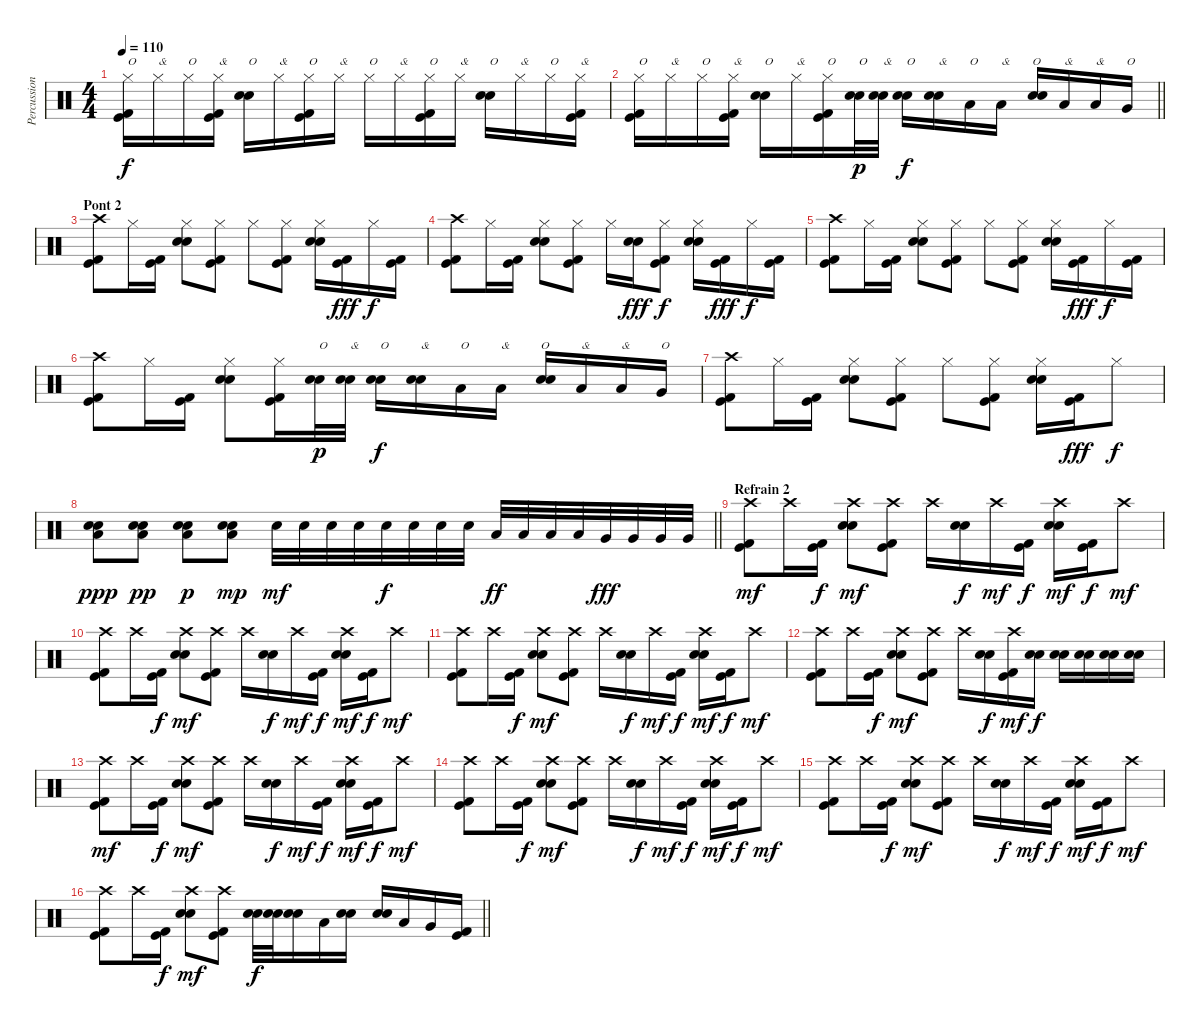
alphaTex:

\track ("Percussions" "Percussion") {instrument percussion}
\staff {score}
\articulation defaults
\ts (4 4)
\tempo 110
\clef neutral
\ks c
("Hi-Hat (closed)" "Kick (hit)" "Kick (hit) 2").16{txt "O" dy f} "Hi-Hat (closed)".16{txt "&"} "Hi-Hat (closed)".16{txt "O"} ("Hi-Hat (closed)" "Kick (hit)" "Kick (hit) 2").16{txt "&"} ("Snare (hit) 2" "Electric Snare (hit)").16{txt "O"} "Hi-Hat (closed)".16{txt "&"} ("Hi-Hat (closed)" "Kick (hit) 2" "Kick (hit)").16{txt "O"} "Hi-Hat (closed)".16{txt "&"} "Hi-Hat (closed)".16{txt "O"} "Hi-Hat (closed)".16{txt "&"} ("Hi-Hat (closed)" "Kick (hit)" "Kick (hit) 2").16{txt "O"} "Hi-Hat (closed)".16{txt "&"} ("Snare (hit) 2" "Electric Snare (hit)").16{txt "O"} "Hi-Hat (closed)".16{txt "&"} "Hi-Hat (closed)".16{txt "O"} ("Hi-Hat (closed)" "Kick (hit)" "Kick (hit) 2").16{txt "&"} |
\barLineRight lightlight
("Hi-Hat (closed)" "Kick (hit)" "Kick (hit) 2").16{txt "O"} "Hi-Hat (closed)".16{txt "&"} "Hi-Hat (closed)".16{txt "O"} ("Hi-Hat (closed)" "Kick (hit)" "Kick (hit) 2").16{txt "&"} ("Snare (hit) 2" "Electric Snare (hit)").16{txt "O"} "Hi-Hat (closed)".16{txt "&"} ("Hi-Hat (closed)" "Kick (hit) 2" "Kick (hit)").16{txt "O"} ("Snare (hit) 2" "Electric Snare (hit)").32{txt "O" dy p} ("Snare (hit) 2" "Electric Snare (hit)").32{txt "&"} ("Snare (hit) 2" "Electric Snare (hit)").16{txt "O" dy f} ("Snare (hit) 2" "Electric Snare (hit)").16{txt "&"} "Low Tom (hit)".16{txt "O"} "Low Tom (hit)".16{txt "&"} ("Snare (hit) 2" "Electric Snare (hit)").16{txt "O"} "Low Tom (hit)".16{txt "&"} "Low Tom (hit)".16{txt "&"} "Very Low Tom (hit)".16{txt "O"} |
\section ("" "Pont 2")
("Crash high (hit)" "Kick (hit)" "Kick (hit) 2").8 "Hi-Hat (closed)".16 ("Kick (hit)" "Kick (hit) 2").16 ("Hi-Hat (closed)" "Snare (hit) 2" "Electric Snare (hit)").8 ("Hi-Hat (closed)" "Kick (hit) 2" "Kick (hit)").8 "Hi-Hat (closed)".8 ("Hi-Hat (closed)" "Kick (hit)" "Kick (hit) 2").8 ("Hi-Hat (closed)" "Snare (hit) 2" "Electric Snare (hit)").16 ("Kick (hit)" "Kick (hit) 2").16{dy fff} "Hi-Hat (closed)".16{dy f} ("Kick (hit)" "Kick (hit) 2").16 |
("Crash high (hit)" "Kick (hit)" "Kick (hit) 2").8 "Hi-Hat (closed)".16 ("Kick (hit)" "Kick (hit) 2").16 ("Hi-Hat (closed)" "Snare (hit) 2" "Electric Snare (hit)").8 ("Hi-Hat (closed)" "Kick (hit) 2" "Kick (hit)").8 "Hi-Hat (closed)".16 ("Snare (hit) 2" "Electric Snare (hit)").16{dy fff} ("Hi-Hat (closed)" "Kick (hit)" "Kick (hit) 2").8{dy f} ("Hi-Hat (closed)" "Snare (hit) 2" "Electric Snare (hit)").16 ("Kick (hit)" "Kick (hit) 2").16{dy fff} "Hi-Hat (closed)".16{dy f} ("Kick (hit)" "Kick (hit) 2").16 |
("Crash high (hit)" "Kick (hit)" "Kick (hit) 2").8 "Hi-Hat (closed)".16 ("Kick (hit)" "Kick (hit) 2").16 ("Hi-Hat (closed)" "Snare (hit) 2" "Electric Snare (hit)").8 ("Hi-Hat (closed)" "Kick (hit) 2" "Kick (hit)").8 "Hi-Hat (closed)".8 ("Hi-Hat (closed)" "Kick (hit)" "Kick (hit) 2").8 ("Hi-Hat (closed)" "Snare (hit) 2" "Electric Snare (hit)").16 ("Kick (hit)" "Kick (hit) 2").16{dy fff} "Hi-Hat (closed)".16{dy f} ("Kick (hit)" "Kick (hit) 2").16 |
("Crash high (hit)" "Kick (hit)" "Kick (hit) 2").8 "Hi-Hat (closed)".16 ("Kick (hit)" "Kick (hit) 2").16 ("Hi-Hat (closed)" "Snare (hit) 2" "Electric Snare (hit)").8 ("Hi-Hat (closed)" "Kick (hit) 2" "Kick (hit)").16 ("Snare (hit) 2" "Electric Snare (hit)").32{txt "O" dy p} ("Snare (hit) 2" "Electric Snare (hit)").32{txt "&"} ("Snare (hit) 2" "Electric Snare (hit)").16{txt "O" dy f} ("Snare (hit) 2" "Electric Snare (hit)").16{txt "&"} "Low Tom (hit)".16{txt "O"} "Low Tom (hit)".16{txt "&"} ("Snare (hit) 2" "Electric Snare (hit)").16{txt "O"} "Low Tom (hit)".16{txt "&"} "Low Tom (hit)".16{txt "&"} "Very Low Tom (hit)".16{txt "O"} |
("Crash high (hit)" "Kick (hit)" "Kick (hit) 2").8 "Hi-Hat (closed)".16 ("Kick (hit)" "Kick (hit) 2").16 ("Hi-Hat (closed)" "Snare (hit) 2" "Electric Snare (hit)").8 ("Hi-Hat (closed)" "Kick (hit) 2" "Kick (hit)").8 "Hi-Hat (closed)".8 ("Hi-Hat (closed)" "Kick (hit)" "Kick (hit) 2").8 ("Hi-Hat (closed)" "Snare (hit) 2" "Electric Snare (hit)").16 ("Kick (hit)" "Kick (hit) 2").16{dy fff} "Hi-Hat (closed)".8{dy f} |
\barLineRight lightlight
("Low Floor Tom (hit)" "Snare (hit) 2" "Electric Snare (hit)").8{dy ppp} ("Low Floor Tom (hit)" "Snare (hit) 2" "Electric Snare (hit)").8{dy pp} ("Low Floor Tom (hit)" "Snare (hit) 2" "Electric Snare (hit)").8{dy p} ("Low Floor Tom (hit)" "Snare (hit) 2" "Electric Snare (hit)").8{dy mp} "Electric Snare (hit)".32{dy mf} "Electric Snare (hit)".32 "Electric Snare (hit)".32 "Electric Snare (hit)".32 "Electric Snare (hit)".32{dy f} "Electric Snare (hit)".32 "Electric Snare (hit)".32 "Electric Snare (hit)".32 "Low Tom (hit)".32{dy ff} "Low Tom (hit)".32 "Low Tom (hit)".32 "Low Tom (hit)".32 "Very Low Tom (hit)".32{dy fff} "Very Low Tom (hit)".32 "Very Low Tom (hit)".32 "Very Low Tom (hit)".32 |
\section ("" "Refrain 2")
("Crash high (hit)" "Kick (hit)" "Kick (hit) 2").8{dy mf} "Crash high (hit)".16 ("Kick (hit)" "Kick (hit) 2").16{dy f} ("Crash high (hit)" "Snare (hit) 2" "Electric Snare (hit)").8{dy mf} ("Crash high (hit)" "Kick (hit)" "Kick (hit) 2").8 "Crash high (hit)".16 ("Snare (hit) 2" "Electric Snare (hit)").16{dy f} "Crash high (hit)".16{dy mf} ("Kick (hit)" "Kick (hit) 2").16{dy f} ("Crash high (hit)" "Snare (hit) 2" "Electric Snare (hit)").16{dy mf} ("Kick (hit)" "Kick (hit) 2").16{dy f} "Crash high (hit)".8{dy mf} |
("Crash high (hit)" "Kick (hit)" "Kick (hit) 2").8 "Crash high (hit)".16 ("Kick (hit)" "Kick (hit) 2").16{dy f} ("Crash high (hit)" "Snare (hit) 2" "Electric Snare (hit)").8{dy mf} ("Crash high (hit)" "Kick (hit)" "Kick (hit) 2").8 "Crash high (hit)".16 ("Snare (hit) 2" "Electric Snare (hit)").16{dy f} "Crash high (hit)".16{dy mf} ("Kick (hit)" "Kick (hit) 2").16{dy f} ("Crash high (hit)" "Snare (hit) 2" "Electric Snare (hit)").16{dy mf} ("Kick (hit)" "Kick (hit) 2").16{dy f} "Crash high (hit)".8{dy mf} |
("Crash high (hit)" "Kick (hit)" "Kick (hit) 2").8 "Crash high (hit)".16 ("Kick (hit)" "Kick (hit) 2").16{dy f} ("Crash high (hit)" "Snare (hit) 2" "Electric Snare (hit)").8{dy mf} ("Crash high (hit)" "Kick (hit)" "Kick (hit) 2").8 "Crash high (hit)".16 ("Snare (hit) 2" "Electric Snare (hit)").16{dy f} "Crash high (hit)".16{dy mf} ("Kick (hit)" "Kick (hit) 2").16{dy f} ("Crash high (hit)" "Snare (hit) 2" "Electric Snare (hit)").16{dy mf} ("Kick (hit)" "Kick (hit) 2").16{dy f} "Crash high (hit)".8{dy mf} |
("Crash high (hit)" "Kick (hit)" "Kick (hit) 2").8 "Crash high (hit)".16 ("Kick (hit)" "Kick (hit) 2").16{dy f} ("Crash high (hit)" "Snare (hit) 2" "Electric Snare (hit)").8{dy mf} ("Crash high (hit)" "Kick (hit)" "Kick (hit) 2").8 "Crash high (hit)".16 ("Snare (hit) 2" "Electric Snare (hit)").16{dy f} ("Crash high (hit)" "Kick (hit)" "Kick (hit) 2").16{dy mf} ("Snare (hit) 2" "Electric Snare (hit)").16{dy f} ("Snare (hit) 2" "Electric Snare (hit)").16 ("Snare (hit) 2" "Electric Snare (hit)").16 ("Snare (hit) 2" "Electric Snare (hit)").16 ("Snare (hit) 2" "Electric Snare (hit)").16 |
("Crash high (hit)" "Kick (hit)" "Kick (hit) 2").8{dy mf} "Crash high (hit)".16 ("Kick (hit)" "Kick (hit) 2").16{dy f} ("Crash high (hit)" "Snare (hit) 2" "Electric Snare (hit)").8{dy mf} ("Crash high (hit)" "Kick (hit)" "Kick (hit) 2").8 "Crash high (hit)".16 ("Snare (hit) 2" "Electric Snare (hit)").16{dy f} "Crash high (hit)".16{dy mf} ("Kick (hit)" "Kick (hit) 2").16{dy f} ("Crash high (hit)" "Snare (hit) 2" "Electric Snare (hit)").16{dy mf} ("Kick (hit)" "Kick (hit) 2").16{dy f} "Crash high (hit)".8{dy mf} |
("Crash high (hit)" "Kick (hit)" "Kick (hit) 2").8 "Crash high (hit)".16 ("Kick (hit)" "Kick (hit) 2").16{dy f} ("Crash high (hit)" "Snare (hit) 2" "Electric Snare (hit)").8{dy mf} ("Crash high (hit)" "Kick (hit)" "Kick (hit) 2").8 "Crash high (hit)".16 ("Snare (hit) 2" "Electric Snare (hit)").16{dy f} "Crash high (hit)".16{dy mf} ("Kick (hit)" "Kick (hit) 2").16{dy f} ("Crash high (hit)" "Snare (hit) 2" "Electric Snare (hit)").16{dy mf} ("Kick (hit)" "Kick (hit) 2").16{dy f} "Crash high (hit)".8{dy mf} |
("Crash high (hit)" "Kick (hit)" "Kick (hit) 2").8 "Crash high (hit)".16 ("Kick (hit)" "Kick (hit) 2").16{dy f} ("Crash high (hit)" "Snare (hit) 2" "Electric Snare (hit)").8{dy mf} ("Crash high (hit)" "Kick (hit)" "Kick (hit) 2").8 "Crash high (hit)".16 ("Snare (hit) 2" "Electric Snare (hit)").16{dy f} "Crash high (hit)".16{dy mf} ("Kick (hit)" "Kick (hit) 2").16{dy f} ("Crash high (hit)" "Snare (hit) 2" "Electric Snare (hit)").16{dy mf} ("Kick (hit)" "Kick (hit) 2").16{dy f} "Crash high (hit)".8{dy mf} |
\barLineRight lightlight
("Crash high (hit)" "Kick (hit)" "Kick (hit) 2").8 "Crash high (hit)".16 ("Kick (hit)" "Kick (hit) 2").16{dy f} ("Crash high (hit)" "Snare (hit) 2" "Electric Snare (hit)").8{dy mf} ("Crash high (hit)" "Kick (hit)" "Kick (hit) 2").8 ("Snare (hit) 2" "Electric Snare (hit)").32{dy f} ("Snare (hit) 2" "Electric Snare (hit)").32 ("Snare (hit) 2" "Electric Snare (hit)").16 "Low Tom (hit)".16 ("Snare (hit) 2" "Electric Snare (hit)").16 ("Snare (hit) 2" "Electric Snare (hit)").16 "Low Tom (hit)".16 "Very Low Tom (hit)".16 ("Kick (hit)" "Kick (hit) 2").16
